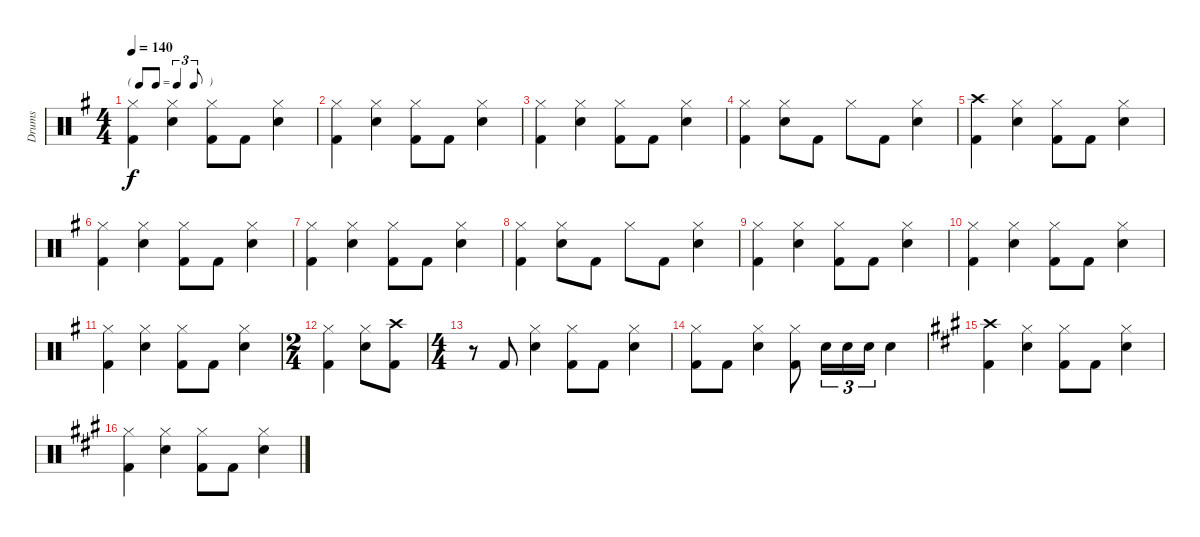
\track ("Drums" "Drums") {instrument percussion}
\staff {score}
\articulation defaults
\ts (4 4)
\tf triplet8th
\tempo 140
\clef neutral
\ks eminor
("Kick (hit) 2" "Hi-Hat (closed)").4{dy f} ("Snare (hit) 2" "Hi-Hat (closed)").4 ("Kick (hit) 2" "Hi-Hat (closed)").8 "Kick (hit) 2".8 ("Snare (hit) 2" "Hi-Hat (closed)").4 |
("Kick (hit) 2" "Hi-Hat (closed)").4 ("Snare (hit) 2" "Hi-Hat (closed)").4 ("Kick (hit) 2" "Hi-Hat (closed)").8 "Kick (hit) 2".8 ("Snare (hit) 2" "Hi-Hat (closed)").4 |
("Kick (hit) 2" "Hi-Hat (closed)").4 ("Snare (hit) 2" "Hi-Hat (closed)").4 ("Kick (hit) 2" "Hi-Hat (closed)").8 "Kick (hit) 2".8 ("Snare (hit) 2" "Hi-Hat (closed)").4 |
("Kick (hit) 2" "Hi-Hat (closed)").4 ("Snare (hit) 2" "Hi-Hat (closed)").8 "Kick (hit) 2".8 "Hi-Hat (closed)".8 "Kick (hit) 2".8 ("Snare (hit) 2" "Hi-Hat (closed)").4 |
("Kick (hit) 2" "Crash high (hit)").4 ("Snare (hit) 2" "Hi-Hat (closed)").4 ("Kick (hit) 2" "Hi-Hat (closed)").8 "Kick (hit) 2".8 ("Snare (hit) 2" "Hi-Hat (closed)").4 |
("Kick (hit) 2" "Hi-Hat (closed)").4 ("Snare (hit) 2" "Hi-Hat (closed)").4 ("Kick (hit) 2" "Hi-Hat (closed)").8 "Kick (hit) 2".8 ("Snare (hit) 2" "Hi-Hat (closed)").4 |
("Kick (hit) 2" "Hi-Hat (closed)").4 ("Snare (hit) 2" "Hi-Hat (closed)").4 ("Kick (hit) 2" "Hi-Hat (closed)").8 "Kick (hit) 2".8 ("Snare (hit) 2" "Hi-Hat (closed)").4 |
("Kick (hit) 2" "Hi-Hat (closed)").4 ("Snare (hit) 2" "Hi-Hat (closed)").8 "Kick (hit) 2".8 "Hi-Hat (closed)".8 "Kick (hit) 2".8 ("Snare (hit) 2" "Hi-Hat (closed)").4 |
("Kick (hit) 2" "Hi-Hat (closed)").4 ("Snare (hit) 2" "Hi-Hat (closed)").4 ("Kick (hit) 2" "Hi-Hat (closed)").8 "Kick (hit) 2".8 ("Snare (hit) 2" "Hi-Hat (closed)").4 |
("Kick (hit) 2" "Hi-Hat (closed)").4 ("Snare (hit) 2" "Hi-Hat (closed)").4 ("Kick (hit) 2" "Hi-Hat (closed)").8 "Kick (hit) 2".8 ("Snare (hit) 2" "Hi-Hat (closed)").4 |
("Kick (hit) 2" "Hi-Hat (closed)").4 ("Snare (hit) 2" "Hi-Hat (closed)").4 ("Kick (hit) 2" "Hi-Hat (closed)").8 "Kick (hit) 2".8 ("Snare (hit) 2" "Hi-Hat (closed)").4 |
\ts (2 4)
("Kick (hit) 2" "Hi-Hat (closed)").4 ("Snare (hit) 2" "Hi-Hat (closed)").8 ("Kick (hit) 2" "Crash high (hit)").8 |
\ts (4 4)
r.8 "Kick (hit) 2".8 ("Snare (hit) 2" "Hi-Hat (closed)").4 ("Kick (hit) 2" "Hi-Hat (closed)").8 "Kick (hit) 2".8 ("Snare (hit) 2" "Hi-Hat (closed)").4 |
("Kick (hit) 2" "Hi-Hat (closed)").8 "Kick (hit) 2".8 ("Snare (hit) 2" "Hi-Hat (closed)").4 ("Kick (hit) 2" "Hi-Hat (closed)").8 "Snare (hit) 2".16{tu (3 2)} "Snare (hit) 2".16{tu (3 2)} "Snare (hit) 2".16{tu (3 2)} "Snare (hit) 2".4 |
\ks f#minor
("Kick (hit) 2" "Crash high (hit)").4 ("Snare (hit) 2" "Hi-Hat (closed)").4 ("Kick (hit) 2" "Hi-Hat (closed)").8 "Kick (hit) 2".8 ("Snare (hit) 2" "Hi-Hat (closed)").4 |
("Kick (hit) 2" "Hi-Hat (closed)").4 ("Snare (hit) 2" "Hi-Hat (closed)").4 ("Kick (hit) 2" "Hi-Hat (closed)").8 "Kick (hit) 2".8 ("Snare (hit) 2" "Hi-Hat (closed)").4
